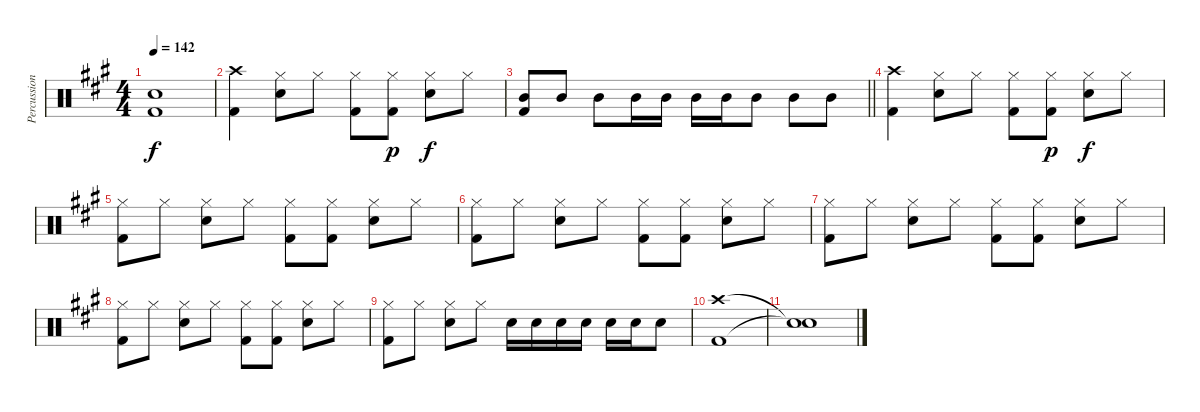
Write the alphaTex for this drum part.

\track ("Percussion" "Percussion") {instrument percussion}
\staff {score}
\articulation defaults
\ts (4 4)
\tempo 142
\clef neutral
\ks a
("Snare (hit) 2" "Kick (hit) 2").1{dy f} |
("Crash high (hit)" "Kick (hit) 2").4 ("Hi-Hat (closed)" "Snare (hit) 2").8 "Hi-Hat (closed)".8 ("Hi-Hat (closed)" "Kick (hit) 2").8 ("Hi-Hat (closed)" "Kick (hit) 2").8{dy p} ("Hi-Hat (closed)" "Snare (hit) 2").8{dy f} "Hi-Hat (closed)".8 |
\barLineRight lightlight
("Mid Tom (hit)" "Kick (hit) 2").8 "Mid Tom (hit)".8 "Mid Tom (hit)".8 "Mid Tom (hit)".16 "Mid Tom (hit)".16 "Mid Tom (hit)".16 "Mid Tom (hit)".16 "Mid Tom (hit)".8 "Mid Tom (hit)".8 "Mid Tom (hit)".8 |
("Crash high (hit)" "Kick (hit) 2").4 ("Hi-Hat (closed)" "Snare (hit) 2").8 "Hi-Hat (closed)".8 ("Hi-Hat (closed)" "Kick (hit) 2").8 ("Hi-Hat (closed)" "Kick (hit) 2").8{dy p} ("Hi-Hat (closed)" "Snare (hit) 2").8{dy f} "Hi-Hat (closed)".8 |
("Hi-Hat (closed)" "Kick (hit) 2").8 "Hi-Hat (closed)".8 ("Hi-Hat (closed)" "Snare (hit) 2").8 "Hi-Hat (closed)".8 ("Hi-Hat (closed)" "Kick (hit) 2").8 ("Hi-Hat (closed)" "Kick (hit) 2").8 ("Hi-Hat (closed)" "Snare (hit) 2").8 "Hi-Hat (closed)".8 |
("Hi-Hat (closed)" "Kick (hit) 2").8 "Hi-Hat (closed)".8 ("Hi-Hat (closed)" "Snare (hit) 2").8 "Hi-Hat (closed)".8 ("Hi-Hat (closed)" "Kick (hit) 2").8 ("Hi-Hat (closed)" "Kick (hit) 2").8 ("Hi-Hat (closed)" "Snare (hit) 2").8 "Hi-Hat (closed)".8 |
("Hi-Hat (closed)" "Kick (hit) 2").8 "Hi-Hat (closed)".8 ("Hi-Hat (closed)" "Snare (hit) 2").8 "Hi-Hat (closed)".8 ("Hi-Hat (closed)" "Kick (hit) 2").8 ("Hi-Hat (closed)" "Kick (hit) 2").8 ("Hi-Hat (closed)" "Snare (hit) 2").8 "Hi-Hat (closed)".8 |
("Hi-Hat (closed)" "Kick (hit) 2").8 "Hi-Hat (closed)".8 ("Hi-Hat (closed)" "Snare (hit) 2").8 "Hi-Hat (closed)".8 ("Hi-Hat (closed)" "Kick (hit) 2").8 ("Hi-Hat (closed)" "Kick (hit) 2").8 ("Hi-Hat (closed)" "Snare (hit) 2").8 "Hi-Hat (closed)".8 |
("Hi-Hat (closed)" "Kick (hit) 2").8 "Hi-Hat (closed)".8 ("Hi-Hat (closed)" "Snare (hit) 2").8 "Hi-Hat (closed)".8 "Snare (hit) 2".16 "Snare (hit) 2".16 "Snare (hit) 2".16 "Snare (hit) 2".16 "Snare (hit) 2".16 "Snare (hit) 2".16 "Snare (hit) 2".8 |
("Crash high (hit)" "Kick (hit) 2").1 |
("Snare (hit)"{t} "Snare (hit)"{t}).1
